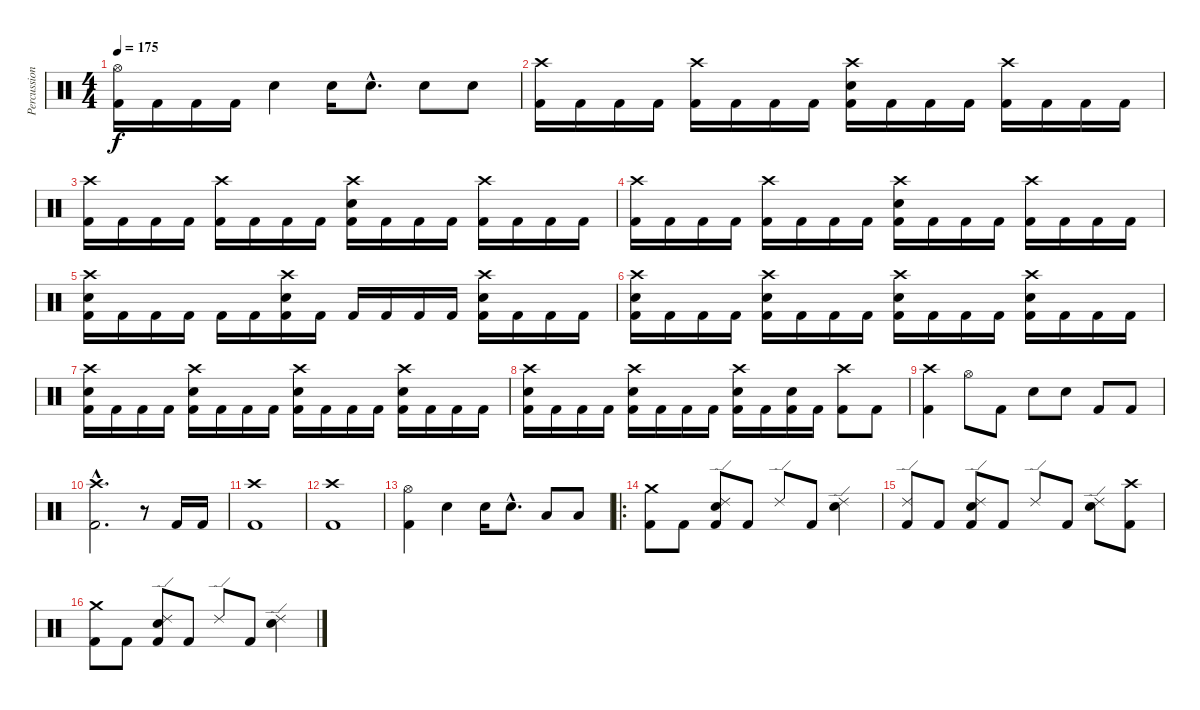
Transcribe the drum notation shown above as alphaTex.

\track ("Percussion" "Percussion") {instrument percussion}
\staff {score}
\articulation defaults
\ts (4 4)
\tempo 175
\clef neutral
\ks c
("Hi-Hat (open)" "Kick (hit) 2").16{dy f} "Kick (hit) 2".16 "Kick (hit) 2".16 "Kick (hit) 2".16 "Snare (hit) 2".4 "Snare (hit) 2".16 "Snare (hit) 2"{hac}.8{d} "Snare (hit) 2".8 "Snare (hit) 2".8 |
("Crash high (hit)" "Kick (hit) 2").16 "Kick (hit) 2".16 "Kick (hit) 2".16 "Kick (hit) 2".16 ("Crash high (hit)" "Kick (hit) 2").16 "Kick (hit) 2".16 "Kick (hit) 2".16 "Kick (hit) 2".16 ("Crash high (hit)" "Snare (hit) 2" "Kick (hit) 2").16 "Kick (hit) 2".16 "Kick (hit) 2".16 "Kick (hit) 2".16 ("Crash high (hit)" "Kick (hit) 2").16 "Kick (hit) 2".16 "Kick (hit) 2".16 "Kick (hit) 2".16 |
("Crash high (hit)" "Kick (hit) 2").16 "Kick (hit) 2".16 "Kick (hit) 2".16 "Kick (hit) 2".16 ("Crash high (hit)" "Kick (hit) 2").16 "Kick (hit) 2".16 "Kick (hit) 2".16 "Kick (hit) 2".16 ("Crash high (hit)" "Snare (hit) 2" "Kick (hit) 2").16 "Kick (hit) 2".16 "Kick (hit) 2".16 "Kick (hit) 2".16 ("Crash high (hit)" "Kick (hit) 2").16 "Kick (hit) 2".16 "Kick (hit) 2".16 "Kick (hit) 2".16 |
("Crash high (hit)" "Kick (hit) 2").16 "Kick (hit) 2".16 "Kick (hit) 2".16 "Kick (hit) 2".16 ("Crash high (hit)" "Kick (hit) 2").16 "Kick (hit) 2".16 "Kick (hit) 2".16 "Kick (hit) 2".16 ("Crash high (hit)" "Snare (hit) 2" "Kick (hit) 2").16 "Kick (hit) 2".16 "Kick (hit) 2".16 "Kick (hit) 2".16 ("Crash high (hit)" "Kick (hit) 2").16 "Kick (hit) 2".16 "Kick (hit) 2".16 "Kick (hit) 2".16 |
("Crash high (hit)" "Snare (hit) 2" "Kick (hit) 2").16 "Kick (hit) 2".16 "Kick (hit) 2".16 "Kick (hit) 2".16 "Kick (hit) 2".16 "Kick (hit) 2".16 ("Crash high (hit)" "Snare (hit) 2" "Kick (hit) 2").16 "Kick (hit) 2".16 "Kick (hit) 2".16 "Kick (hit) 2".16 "Kick (hit) 2".16 "Kick (hit) 2".16 ("Crash high (hit)" "Snare (hit) 2" "Kick (hit) 2").16 "Kick (hit) 2".16 "Kick (hit) 2".16 "Kick (hit) 2".16 |
("Crash high (hit)" "Snare (hit) 2" "Kick (hit) 2").16 "Kick (hit) 2".16 "Kick (hit) 2".16 "Kick (hit) 2".16 ("Crash high (hit)" "Snare (hit) 2" "Kick (hit) 2").16 "Kick (hit) 2".16 "Kick (hit) 2".16 "Kick (hit) 2".16 ("Crash high (hit)" "Snare (hit) 2" "Kick (hit) 2").16 "Kick (hit) 2".16 "Kick (hit) 2".16 "Kick (hit) 2".16 ("Crash high (hit)" "Snare (hit) 2" "Kick (hit) 2").16 "Kick (hit) 2".16 "Kick (hit) 2".16 "Kick (hit) 2".16 |
("Crash high (hit)" "Snare (hit) 2" "Kick (hit) 2").16 "Kick (hit) 2".16 "Kick (hit) 2".16 "Kick (hit) 2".16 ("Crash high (hit)" "Snare (hit) 2" "Kick (hit) 2").16 "Kick (hit) 2".16 "Kick (hit) 2".16 "Kick (hit) 2".16 ("Crash high (hit)" "Snare (hit) 2" "Kick (hit) 2").16 "Kick (hit) 2".16 "Kick (hit) 2".16 "Kick (hit) 2".16 ("Crash high (hit)" "Snare (hit) 2" "Kick (hit) 2").16 "Kick (hit) 2".16 "Kick (hit) 2".16 "Kick (hit) 2".16 |
("Crash high (hit)" "Snare (hit) 2" "Kick (hit) 2").16 "Kick (hit) 2".16 "Kick (hit) 2".16 "Kick (hit) 2".16 ("Crash high (hit)" "Snare (hit) 2" "Kick (hit) 2").16 "Kick (hit) 2".16 "Kick (hit) 2".16 "Kick (hit) 2".16 ("Crash high (hit)" "Snare (hit) 2" "Kick (hit) 2").16 "Kick (hit) 2".16 ("Snare (hit) 2" "Kick (hit) 2").16 "Kick (hit) 2".16 ("Crash high (hit)" "Kick (hit) 2").8 "Kick (hit) 2".8 |
("Crash high (hit)" "Kick (hit) 2").4 "Hi-Hat (open)".8 "Kick (hit) 2".8 "Snare (hit) 2".8 "Snare (hit) 2".8 "Kick (hit) 2".8 "Kick (hit) 2".8 |
("Crash high (hit)"{hac} "Kick (hit) 2"{hac}).2{d} r.8 "Kick (hit) 2".16 "Kick (hit) 2".16 |
("Crash high (hit)" "Kick (hit) 2").1 |
("Crash high (hit)" "Kick (hit) 2").1 |
("Hi-Hat (open)" "Kick (hit) 2").4 "Snare (hit) 2".4 "Snare (hit) 2".16 "Snare (hit) 2"{hac}.8{d} "Low Tom (hit)".8 "Low Tom (hit)".8 |
\ro
("Crash medium (hit)" "Kick (hit) 2").8 "Kick (hit) 2".8 ("Ride (edge) 2" "Snare (hit) 2" "Kick (hit) 2").8 "Kick (hit) 2".8 "Ride (edge) 2".8 "Kick (hit) 2".8 ("Ride (edge) 2" "Snare (hit) 2").4 |
("Ride (edge) 2" "Kick (hit) 2").8 "Kick (hit) 2".8 ("Ride (edge) 2" "Snare (hit) 2" "Kick (hit) 2").8 "Kick (hit) 2".8 "Ride (edge) 2".8 "Kick (hit) 2".8 ("Ride (edge) 2" "Snare (hit) 2").8 ("Crash high (hit)" "Kick (hit) 2").8 |
("Crash medium (hit)" "Kick (hit) 2").8 "Kick (hit) 2".8 ("Ride (edge) 2" "Snare (hit) 2" "Kick (hit) 2").8 "Kick (hit) 2".8 "Ride (edge) 2".8 "Kick (hit) 2".8 ("Ride (edge) 2" "Snare (hit) 2").4
